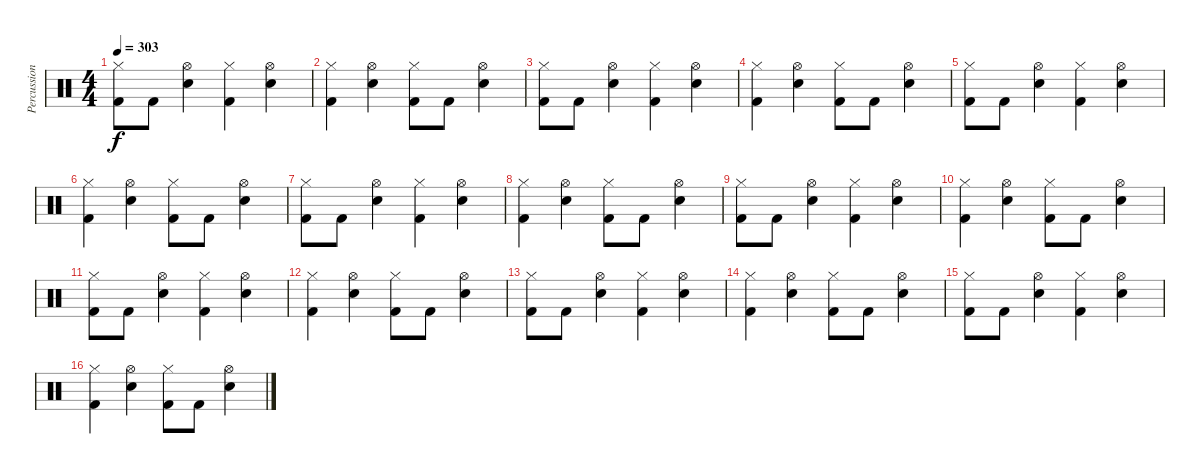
\track ("Percussions" "Percussion") {instrument percussion}
\staff {score}
\articulation defaults
\ts (4 4)
\tempo 303
\clef neutral
\ks c
("Hi-Hat (closed)" "Kick (hit) 2").8{dy f} "Kick (hit) 2".8 ("Hi-Hat (open)" "Electric Snare (hit)").4 ("Hi-Hat (closed)" "Kick (hit) 2").4 ("Hi-Hat (open)" "Electric Snare (hit)").4 |
("Hi-Hat (closed)" "Kick (hit) 2").4 ("Hi-Hat (open)" "Electric Snare (hit)").4 ("Hi-Hat (closed)" "Kick (hit) 2").8 "Kick (hit) 2".8 ("Hi-Hat (open)" "Electric Snare (hit)").4 |
("Hi-Hat (closed)" "Kick (hit) 2").8 "Kick (hit) 2".8 ("Hi-Hat (open)" "Electric Snare (hit)").4 ("Hi-Hat (closed)" "Kick (hit) 2").4 ("Hi-Hat (open)" "Electric Snare (hit)").4 |
("Hi-Hat (closed)" "Kick (hit) 2").4 ("Hi-Hat (open)" "Electric Snare (hit)").4 ("Hi-Hat (closed)" "Kick (hit) 2").8 "Kick (hit) 2".8 ("Hi-Hat (open)" "Electric Snare (hit)").4 |
("Hi-Hat (closed)" "Kick (hit) 2").8 "Kick (hit) 2".8 ("Hi-Hat (open)" "Electric Snare (hit)").4 ("Hi-Hat (closed)" "Kick (hit) 2").4 ("Hi-Hat (open)" "Electric Snare (hit)").4 |
("Hi-Hat (closed)" "Kick (hit) 2").4 ("Hi-Hat (open)" "Electric Snare (hit)").4 ("Hi-Hat (closed)" "Kick (hit) 2").8 "Kick (hit) 2".8 ("Hi-Hat (open)" "Electric Snare (hit)").4 |
("Hi-Hat (closed)" "Kick (hit) 2").8 "Kick (hit) 2".8 ("Hi-Hat (open)" "Electric Snare (hit)").4 ("Hi-Hat (closed)" "Kick (hit) 2").4 ("Hi-Hat (open)" "Electric Snare (hit)").4 |
("Hi-Hat (closed)" "Kick (hit) 2").4 ("Hi-Hat (open)" "Electric Snare (hit)").4 ("Hi-Hat (closed)" "Kick (hit) 2").8 "Kick (hit) 2".8 ("Hi-Hat (open)" "Electric Snare (hit)").4 |
("Hi-Hat (closed)" "Kick (hit) 2").8 "Kick (hit) 2".8 ("Hi-Hat (open)" "Electric Snare (hit)").4 ("Hi-Hat (closed)" "Kick (hit) 2").4 ("Hi-Hat (open)" "Electric Snare (hit)").4 |
("Hi-Hat (closed)" "Kick (hit) 2").4 ("Hi-Hat (open)" "Electric Snare (hit)").4 ("Hi-Hat (closed)" "Kick (hit) 2").8 "Kick (hit) 2".8 ("Hi-Hat (open)" "Electric Snare (hit)").4 |
("Hi-Hat (closed)" "Kick (hit) 2").8 "Kick (hit) 2".8 ("Hi-Hat (open)" "Electric Snare (hit)").4 ("Hi-Hat (closed)" "Kick (hit) 2").4 ("Hi-Hat (open)" "Electric Snare (hit)").4 |
("Hi-Hat (closed)" "Kick (hit) 2").4 ("Hi-Hat (open)" "Electric Snare (hit)").4 ("Hi-Hat (closed)" "Kick (hit) 2").8 "Kick (hit) 2".8 ("Hi-Hat (open)" "Electric Snare (hit)").4 |
("Hi-Hat (closed)" "Kick (hit) 2").8 "Kick (hit) 2".8 ("Hi-Hat (open)" "Electric Snare (hit)").4 ("Hi-Hat (closed)" "Kick (hit) 2").4 ("Hi-Hat (open)" "Electric Snare (hit)").4 |
("Hi-Hat (closed)" "Kick (hit) 2").4 ("Hi-Hat (open)" "Electric Snare (hit)").4 ("Hi-Hat (closed)" "Kick (hit) 2").8 "Kick (hit) 2".8 ("Hi-Hat (open)" "Electric Snare (hit)").4 |
("Hi-Hat (closed)" "Kick (hit) 2").8 "Kick (hit) 2".8 ("Hi-Hat (open)" "Electric Snare (hit)").4 ("Hi-Hat (closed)" "Kick (hit) 2").4 ("Hi-Hat (open)" "Electric Snare (hit)").4 |
("Hi-Hat (closed)" "Kick (hit) 2").4 ("Hi-Hat (open)" "Electric Snare (hit)").4 ("Hi-Hat (closed)" "Kick (hit) 2").8 "Kick (hit) 2".8 ("Hi-Hat (open)" "Electric Snare (hit)").4
